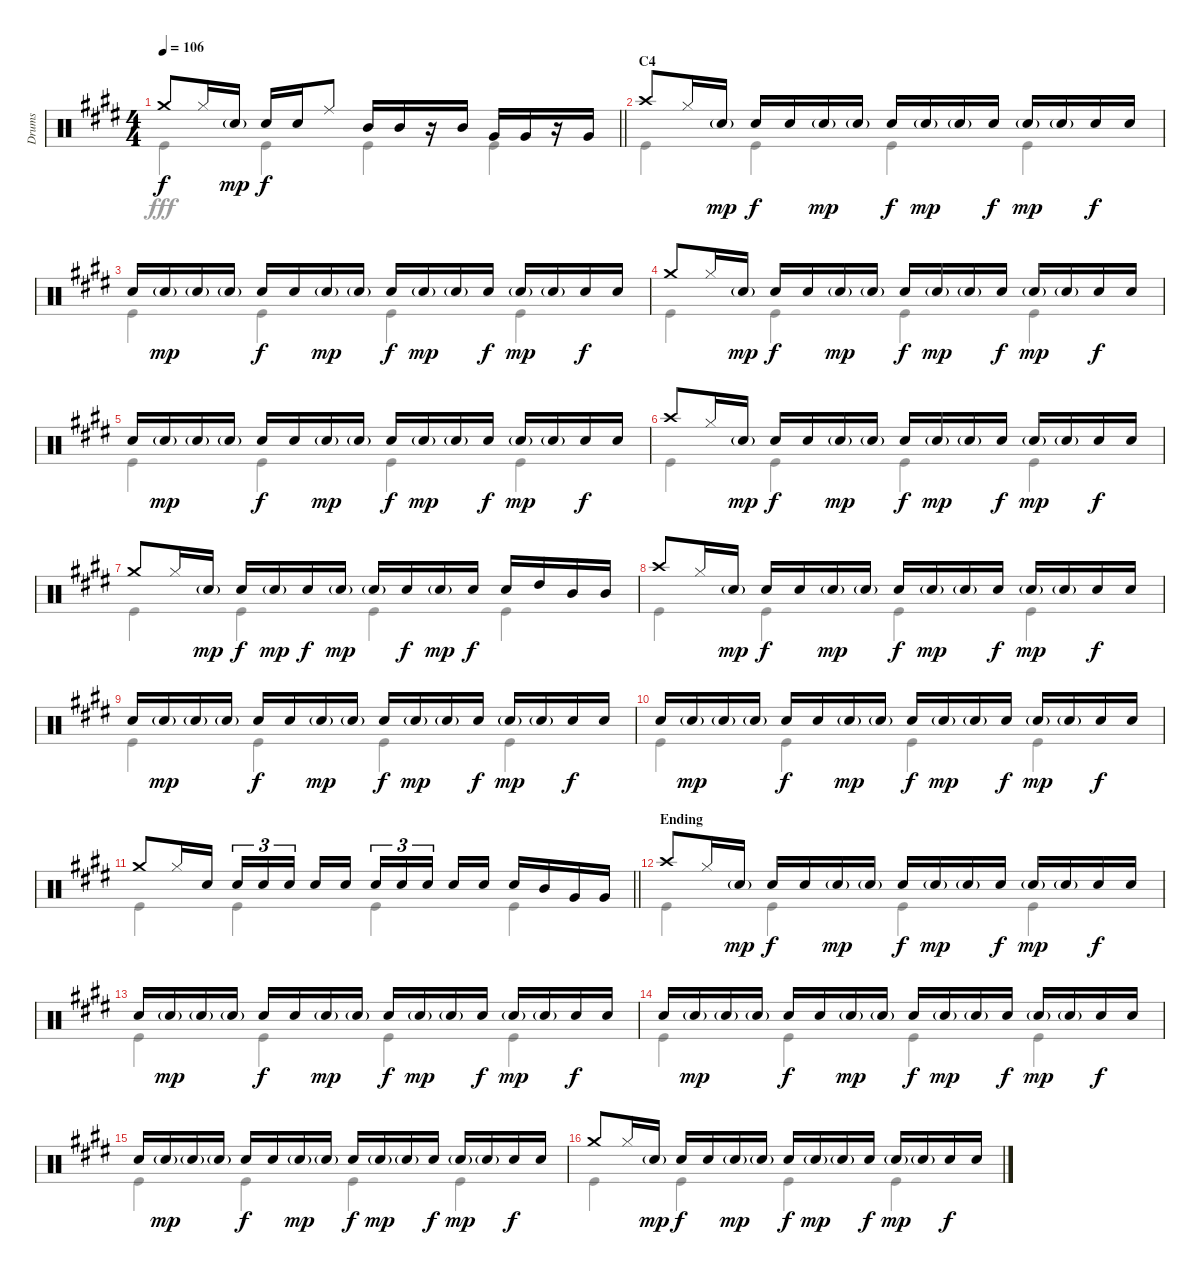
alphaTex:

\track ("Drums" "Drums") {instrument percussion}
\staff {score}
\articulation defaults
\voice
\ts (4 4)
\tempo 106
\clef neutral
\barLineRight lightlight
\ks e "Crash medium (hit)".8{dy f} "Hi-Hat (closed)".16 "Snare (hit) 2"{g}.16{dy mp} "Snare (hit) 2".16{dy f} "Snare (hit) 2".16 "Ride (middle)".8 "Mid Tom (hit)".16 "Mid Tom (hit)".16
r.16 "Mid Tom (hit)".16 "Very Low Tom (hit)".16 "Very Low Tom (hit)".16 r.16 "Very Low Tom (hit)".16 |
\section ("" "C4")
"Crash high (hit)".8 "Hi-Hat (closed)".16 "Snare (hit) 2"{g}.16{dy mp} "Snare (hit) 2".16{dy f} "Snare (hit) 2".16 "Snare (hit) 2"{g}.16{dy mp} "Snare (hit) 2"{g}.16 "Snare (hit) 2".16{dy f} "Snare (hit) 2"{g}.16{dy mp} "Snare (hit) 2"{g}.16 "Snare (hit) 2".16{dy f} "Snare (hit) 2"{g}.16{dy mp} "Snare (hit) 2"{g}.16 "Snare (hit) 2".16{dy f} "Snare (hit) 2".16 |
"Snare (hit) 2".16 "Snare (hit) 2"{g}.16{dy mp} "Snare (hit) 2"{g}.16 "Snare (hit) 2"{g}.16 "Snare (hit) 2".16{dy f} "Snare (hit) 2".16 "Snare (hit) 2"{g}.16{dy mp} "Snare (hit) 2"{g}.16 "Snare (hit) 2".16{dy f} "Snare (hit) 2"{g}.16{dy mp} "Snare (hit) 2"{g}.16 "Snare (hit) 2".16{dy f} "Snare (hit) 2"{g}.16{dy mp} "Snare (hit) 2"{g}.16 "Snare (hit) 2".16{dy f} "Snare (hit) 2".16 |
"Crash medium (hit)".8 "Hi-Hat (closed)".16 "Snare (hit) 2"{g}.16{dy mp} "Snare (hit) 2".16{dy f} "Snare (hit) 2".16 "Snare (hit) 2"{g}.16{dy mp} "Snare (hit) 2"{g}.16 "Snare (hit) 2".16{dy f} "Snare (hit) 2"{g}.16{dy mp} "Snare (hit) 2"{g}.16 "Snare (hit) 2".16{dy f} "Snare (hit) 2"{g}.16{dy mp} "Snare (hit) 2"{g}.16 "Snare (hit) 2".16{dy f} "Snare (hit) 2".16 |
"Snare (hit) 2".16 "Snare (hit) 2"{g}.16{dy mp} "Snare (hit) 2"{g}.16 "Snare (hit) 2"{g}.16 "Snare (hit) 2".16{dy f} "Snare (hit) 2".16 "Snare (hit) 2"{g}.16{dy mp} "Snare (hit) 2"{g}.16 "Snare (hit) 2".16{dy f} "Snare (hit) 2"{g}.16{dy mp} "Snare (hit) 2"{g}.16 "Snare (hit) 2".16{dy f} "Snare (hit) 2"{g}.16{dy mp} "Snare (hit) 2"{g}.16 "Snare (hit) 2".16{dy f} "Snare (hit) 2".16 |
"Crash high (hit)".8 "Hi-Hat (closed)".16 "Snare (hit) 2"{g}.16{dy mp} "Snare (hit) 2".16{dy f} "Snare (hit) 2".16 "Snare (hit) 2"{g}.16{dy mp} "Snare (hit) 2"{g}.16 "Snare (hit) 2".16{dy f} "Snare (hit) 2"{g}.16{dy mp} "Snare (hit) 2"{g}.16 "Snare (hit) 2".16{dy f} "Snare (hit) 2"{g}.16{dy mp} "Snare (hit) 2"{g}.16 "Snare (hit) 2".16{dy f} "Snare (hit) 2".16 |
"Crash medium (hit)".8 "Hi-Hat (closed)".16 "Snare (hit) 2"{g}.16{dy mp} "Snare (hit) 2".16{dy f} "Snare (hit) 2"{g}.16{dy mp} "Snare (hit) 2".16{dy f} "Snare (hit) 2"{g}.16{dy mp} "Snare (hit) 2"{g}.16 "Snare (hit) 2".16{dy f} "Snare (hit) 2"{g}.16{dy mp} "Snare (hit) 2".16{dy f} "Snare (hit) 2".16 "High Tom (hit)".16 "Mid Tom (hit)".16 "Mid Tom (hit)".16 |
"Crash high (hit)".8 "Hi-Hat (closed)".16 "Snare (hit) 2"{g}.16{dy mp} "Snare (hit) 2".16{dy f} "Snare (hit) 2".16 "Snare (hit) 2"{g}.16{dy mp} "Snare (hit) 2"{g}.16 "Snare (hit) 2".16{dy f} "Snare (hit) 2"{g}.16{dy mp} "Snare (hit) 2"{g}.16 "Snare (hit) 2".16{dy f} "Snare (hit) 2"{g}.16{dy mp} "Snare (hit) 2"{g}.16 "Snare (hit) 2".16{dy f} "Snare (hit) 2".16 |
"Snare (hit) 2".16 "Snare (hit) 2"{g}.16{dy mp} "Snare (hit) 2"{g}.16 "Snare (hit) 2"{g}.16 "Snare (hit) 2".16{dy f} "Snare (hit) 2".16 "Snare (hit) 2"{g}.16{dy mp} "Snare (hit) 2"{g}.16 "Snare (hit) 2".16{dy f} "Snare (hit) 2"{g}.16{dy mp} "Snare (hit) 2"{g}.16 "Snare (hit) 2".16{dy f} "Snare (hit) 2"{g}.16{dy mp} "Snare (hit) 2"{g}.16 "Snare (hit) 2".16{dy f} "Snare (hit) 2".16 |
"Snare (hit) 2".16 "Snare (hit) 2"{g}.16{dy mp} "Snare (hit) 2"{g}.16 "Snare (hit) 2"{g}.16 "Snare (hit) 2".16{dy f} "Snare (hit) 2".16 "Snare (hit) 2"{g}.16{dy mp} "Snare (hit) 2"{g}.16 "Snare (hit) 2".16{dy f} "Snare (hit) 2"{g}.16{dy mp} "Snare (hit) 2"{g}.16 "Snare (hit) 2".16{dy f} "Snare (hit) 2"{g}.16{dy mp} "Snare (hit) 2"{g}.16 "Snare (hit) 2".16{dy f} "Snare (hit) 2".16 |
\barLineRight lightlight "Crash medium (hit)".8 "Hi-Hat (closed)".16 "Snare (hit) 2".16 "Snare (hit) 2".16{tu (3 2)} "Snare (hit) 2".16{tu (3 2)} "Snare (hit) 2".16{tu (3 2) beam splitsecondary} "Snare (hit) 2".16 "Snare (hit) 2".16 "Snare (hit) 2".16{tu (3 2)} "Snare (hit) 2".16{tu (3 2)} "Snare (hit) 2".16{tu (3 2) beam splitsecondary} "Snare (hit) 2".16 "Snare (hit) 2".16 "Snare (hit) 2".16 "Mid Tom (hit)".16 "Very Low Tom (hit)".16 "Very Low Tom (hit)".16
|
\section ("" "Ending")
"Crash high (hit)".8 "Hi-Hat (closed)".16 "Snare (hit) 2"{g}.16{dy mp} "Snare (hit) 2".16{dy f} "Snare (hit) 2".16 "Snare (hit) 2"{g}.16{dy mp} "Snare (hit) 2"{g}.16 "Snare (hit) 2".16{dy f} "Snare (hit) 2"{g}.16{dy mp} "Snare (hit) 2"{g}.16 "Snare (hit) 2".16{dy f} "Snare (hit) 2"{g}.16{dy mp} "Snare (hit) 2"{g}.16 "Snare (hit) 2".16{dy f} "Snare (hit) 2".16 |
"Snare (hit) 2".16 "Snare (hit) 2"{g}.16{dy mp} "Snare (hit) 2"{g}.16 "Snare (hit) 2"{g}.16 "Snare (hit) 2".16{dy f} "Snare (hit) 2".16 "Snare (hit) 2"{g}.16{dy mp} "Snare (hit) 2"{g}.16 "Snare (hit) 2".16{dy f} "Snare (hit) 2"{g}.16{dy mp} "Snare (hit) 2"{g}.16 "Snare (hit) 2".16{dy f} "Snare (hit) 2"{g}.16{dy mp} "Snare (hit) 2"{g}.16 "Snare (hit) 2".16{dy f} "Snare (hit) 2".16 |
"Snare (hit) 2".16 "Snare (hit) 2"{g}.16{dy mp} "Snare (hit) 2"{g}.16 "Snare (hit) 2"{g}.16 "Snare (hit) 2".16{dy f} "Snare (hit) 2".16 "Snare (hit) 2"{g}.16{dy mp} "Snare (hit) 2"{g}.16 "Snare (hit) 2".16{dy f} "Snare (hit) 2"{g}.16{dy mp} "Snare (hit) 2"{g}.16 "Snare (hit) 2".16{dy f} "Snare (hit) 2"{g}.16{dy mp} "Snare (hit) 2"{g}.16 "Snare (hit) 2".16{dy f} "Snare (hit) 2".16 |
"Snare (hit) 2".16 "Snare (hit) 2"{g}.16{dy mp} "Snare (hit) 2"{g}.16 "Snare (hit) 2"{g}.16 "Snare (hit) 2".16{dy f} "Snare (hit) 2".16 "Snare (hit) 2"{g}.16{dy mp} "Snare (hit) 2"{g}.16 "Snare (hit) 2".16{dy f} "Snare (hit) 2"{g}.16{dy mp} "Snare (hit) 2"{g}.16 "Snare (hit) 2".16{dy f} "Snare (hit) 2"{g}.16{dy mp} "Snare (hit) 2"{g}.16 "Snare (hit) 2".16{dy f} "Snare (hit) 2".16 |
"Crash medium (hit)".8 "Hi-Hat (closed)".16 "Snare (hit) 2"{g}.16{dy mp} "Snare (hit) 2".16{dy f} "Snare (hit) 2".16 "Snare (hit) 2"{g}.16{dy mp} "Snare (hit) 2"{g}.16 "Snare (hit) 2".16{dy f} "Snare (hit) 2"{g}.16{dy mp} "Snare (hit) 2"{g}.16 "Snare (hit) 2".16{dy f} "Snare (hit) 2"{g}.16{dy mp} "Snare (hit) 2"{g}.16 "Snare (hit) 2".16{dy f} "Snare (hit) 2".16
\voice
\clef neutral
\ottava regular
\simile none
\barLineRight lightlight
\ks e "Kick (hit)".4{dy fff} "Kick (hit)".4 "Kick (hit)".4 "Kick (hit)".4
|
"Kick (hit)".4 "Kick (hit)".4 "Kick (hit)".4 "Kick (hit)".4 |
"Kick (hit)".4 "Kick (hit)".4 "Kick (hit)".4 "Kick (hit)".4 |
"Kick (hit)".4 "Kick (hit)".4 "Kick (hit)".4 "Kick (hit)".4 |
"Kick (hit)".4 "Kick (hit)".4 "Kick (hit)".4 "Kick (hit)".4 |
"Kick (hit)".4 "Kick (hit)".4 "Kick (hit)".4 "Kick (hit)".4 |
"Kick (hit)".4 "Kick (hit)".4 "Kick (hit)".4 "Kick (hit)".4 |
"Kick (hit)".4 "Kick (hit)".4 "Kick (hit)".4 "Kick (hit)".4 |
"Kick (hit)".4 "Kick (hit)".4 "Kick (hit)".4 "Kick (hit)".4 |
"Kick (hit)".4 "Kick (hit)".4 "Kick (hit)".4 "Kick (hit)".4 |
\barLineRight lightlight "Kick (hit)".4 "Kick (hit)".4 "Kick (hit)".4 "Kick (hit)".4
|
"Kick (hit)".4 "Kick (hit)".4 "Kick (hit)".4 "Kick (hit)".4 |
"Kick (hit)".4 "Kick (hit)".4 "Kick (hit)".4 "Kick (hit)".4 |
"Kick (hit)".4 "Kick (hit)".4 "Kick (hit)".4 "Kick (hit)".4 |
"Kick (hit)".4 "Kick (hit)".4 "Kick (hit)".4 "Kick (hit)".4 |
"Kick (hit)".4 "Kick (hit)".4 "Kick (hit)".4 "Kick (hit)".4
